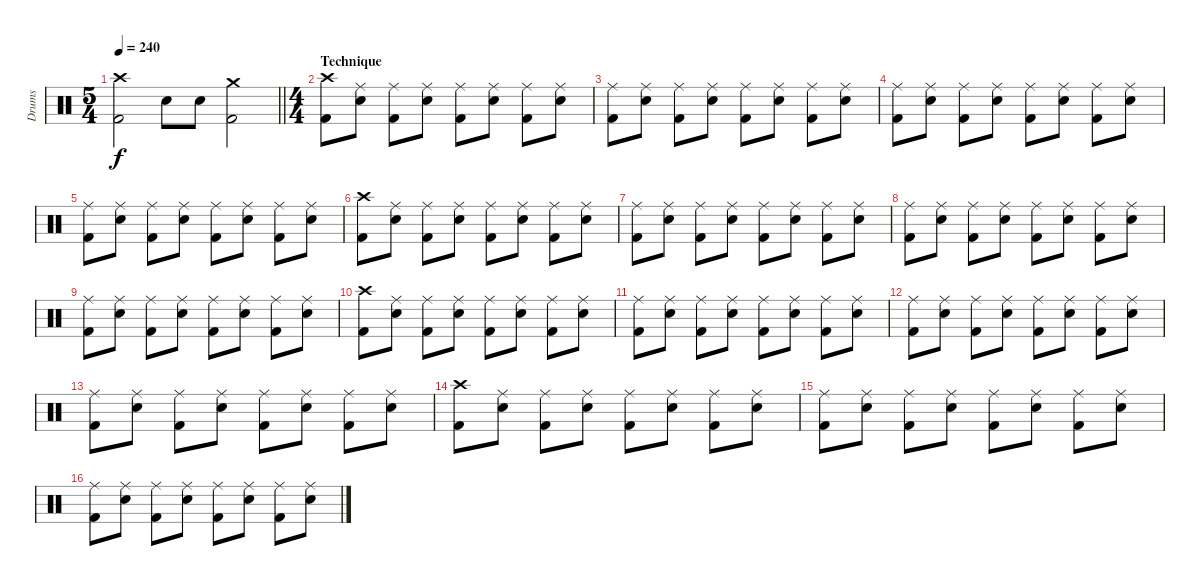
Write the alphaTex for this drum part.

\track ("Drums" "Drums") {instrument percussion}
\staff {score}
\articulation defaults
\ts (5 4)
\tempo 240
\clef neutral
\barLineRight lightlight
\ks c
("Crash high (hit)" "Kick (hit) 2").2{dy f} "Snare (hit) 2".8 "Snare (hit) 2".8 ("Crash medium (hit)" "Kick (hit) 2").2 |
\ts (4 4)
\section ("" "Technique")
("Crash high (hit)" "Kick (hit) 2").8 ("Ride (middle)" "Snare (hit) 2").8 ("Ride (middle)" "Kick (hit) 2").8 ("Ride (middle)" "Snare (hit) 2").8 ("Ride (middle)" "Kick (hit) 2").8 ("Ride (middle)" "Snare (hit) 2").8 ("Ride (middle)" "Kick (hit) 2").8 ("Ride (middle)" "Snare (hit) 2").8 |
("Ride (middle)" "Kick (hit) 2").8 ("Ride (middle)" "Snare (hit) 2").8 ("Ride (middle)" "Kick (hit) 2").8 ("Ride (middle)" "Snare (hit) 2").8 ("Ride (middle)" "Kick (hit) 2").8 ("Ride (middle)" "Snare (hit) 2").8 ("Ride (middle)" "Kick (hit) 2").8 ("Ride (middle)" "Snare (hit) 2").8 |
("Ride (middle)" "Kick (hit) 2").8 ("Ride (middle)" "Snare (hit) 2").8 ("Ride (middle)" "Kick (hit) 2").8 ("Ride (middle)" "Snare (hit) 2").8 ("Ride (middle)" "Kick (hit) 2").8 ("Ride (middle)" "Snare (hit) 2").8 ("Ride (middle)" "Kick (hit) 2").8 ("Ride (middle)" "Snare (hit) 2").8 |
("Ride (middle)" "Kick (hit) 2").8 ("Ride (middle)" "Snare (hit) 2").8 ("Ride (middle)" "Kick (hit) 2").8 ("Ride (middle)" "Snare (hit) 2").8 ("Ride (middle)" "Kick (hit) 2").8 ("Ride (middle)" "Snare (hit) 2").8 ("Ride (middle)" "Kick (hit) 2").8 ("Ride (middle)" "Snare (hit) 2").8 |
("Crash high (hit)" "Kick (hit) 2").8 ("Ride (middle)" "Snare (hit) 2").8 ("Ride (middle)" "Kick (hit) 2").8 ("Ride (middle)" "Snare (hit) 2").8 ("Ride (middle)" "Kick (hit) 2").8 ("Ride (middle)" "Snare (hit) 2").8 ("Ride (middle)" "Kick (hit) 2").8 ("Ride (middle)" "Snare (hit) 2").8 |
("Ride (middle)" "Kick (hit) 2").8 ("Ride (middle)" "Snare (hit) 2").8 ("Ride (middle)" "Kick (hit) 2").8 ("Ride (middle)" "Snare (hit) 2").8 ("Ride (middle)" "Kick (hit) 2").8 ("Ride (middle)" "Snare (hit) 2").8 ("Ride (middle)" "Kick (hit) 2").8 ("Ride (middle)" "Snare (hit) 2").8 |
("Ride (middle)" "Kick (hit) 2").8 ("Ride (middle)" "Snare (hit) 2").8 ("Ride (middle)" "Kick (hit) 2").8 ("Ride (middle)" "Snare (hit) 2").8 ("Ride (middle)" "Kick (hit) 2").8 ("Ride (middle)" "Snare (hit) 2").8 ("Ride (middle)" "Kick (hit) 2").8 ("Ride (middle)" "Snare (hit) 2").8 |
("Ride (middle)" "Kick (hit) 2").8 ("Ride (middle)" "Snare (hit) 2").8 ("Ride (middle)" "Kick (hit) 2").8 ("Ride (middle)" "Snare (hit) 2").8 ("Ride (middle)" "Kick (hit) 2").8 ("Ride (middle)" "Snare (hit) 2").8 ("Ride (middle)" "Kick (hit) 2").8 ("Ride (middle)" "Snare (hit) 2").8 |
("Crash high (hit)" "Kick (hit) 2").8 ("Ride (middle)" "Snare (hit) 2").8 ("Ride (middle)" "Kick (hit) 2").8 ("Ride (middle)" "Snare (hit) 2").8 ("Ride (middle)" "Kick (hit) 2").8 ("Ride (middle)" "Snare (hit) 2").8 ("Ride (middle)" "Kick (hit) 2").8 ("Ride (middle)" "Snare (hit) 2").8 |
("Ride (middle)" "Kick (hit) 2").8 ("Ride (middle)" "Snare (hit) 2").8 ("Ride (middle)" "Kick (hit) 2").8 ("Ride (middle)" "Snare (hit) 2").8 ("Ride (middle)" "Kick (hit) 2").8 ("Ride (middle)" "Snare (hit) 2").8 ("Ride (middle)" "Kick (hit) 2").8 ("Ride (middle)" "Snare (hit) 2").8 |
("Ride (middle)" "Kick (hit) 2").8 ("Ride (middle)" "Snare (hit) 2").8 ("Ride (middle)" "Kick (hit) 2").8 ("Ride (middle)" "Snare (hit) 2").8 ("Ride (middle)" "Kick (hit) 2").8 ("Ride (middle)" "Snare (hit) 2").8 ("Ride (middle)" "Kick (hit) 2").8 ("Ride (middle)" "Snare (hit) 2").8 |
("Ride (middle)" "Kick (hit) 2").8 ("Ride (middle)" "Snare (hit) 2").8 ("Ride (middle)" "Kick (hit) 2").8 ("Ride (middle)" "Snare (hit) 2").8 ("Ride (middle)" "Kick (hit) 2").8 ("Ride (middle)" "Snare (hit) 2").8 ("Ride (middle)" "Kick (hit) 2").8 ("Ride (middle)" "Snare (hit) 2").8 |
("Crash high (hit)" "Kick (hit) 2").8 ("Ride (middle)" "Snare (hit) 2").8 ("Ride (middle)" "Kick (hit) 2").8 ("Ride (middle)" "Snare (hit) 2").8 ("Ride (middle)" "Kick (hit) 2").8 ("Ride (middle)" "Snare (hit) 2").8 ("Ride (middle)" "Kick (hit) 2").8 ("Ride (middle)" "Snare (hit) 2").8 |
("Ride (middle)" "Kick (hit) 2").8 ("Ride (middle)" "Snare (hit) 2").8 ("Ride (middle)" "Kick (hit) 2").8 ("Ride (middle)" "Snare (hit) 2").8 ("Ride (middle)" "Kick (hit) 2").8 ("Ride (middle)" "Snare (hit) 2").8 ("Ride (middle)" "Kick (hit) 2").8 ("Ride (middle)" "Snare (hit) 2").8 |
("Ride (middle)" "Kick (hit) 2").8 ("Ride (middle)" "Snare (hit) 2").8 ("Ride (middle)" "Kick (hit) 2").8 ("Ride (middle)" "Snare (hit) 2").8 ("Ride (middle)" "Kick (hit) 2").8 ("Ride (middle)" "Snare (hit) 2").8 ("Ride (middle)" "Kick (hit) 2").8 ("Ride (middle)" "Snare (hit) 2").8
